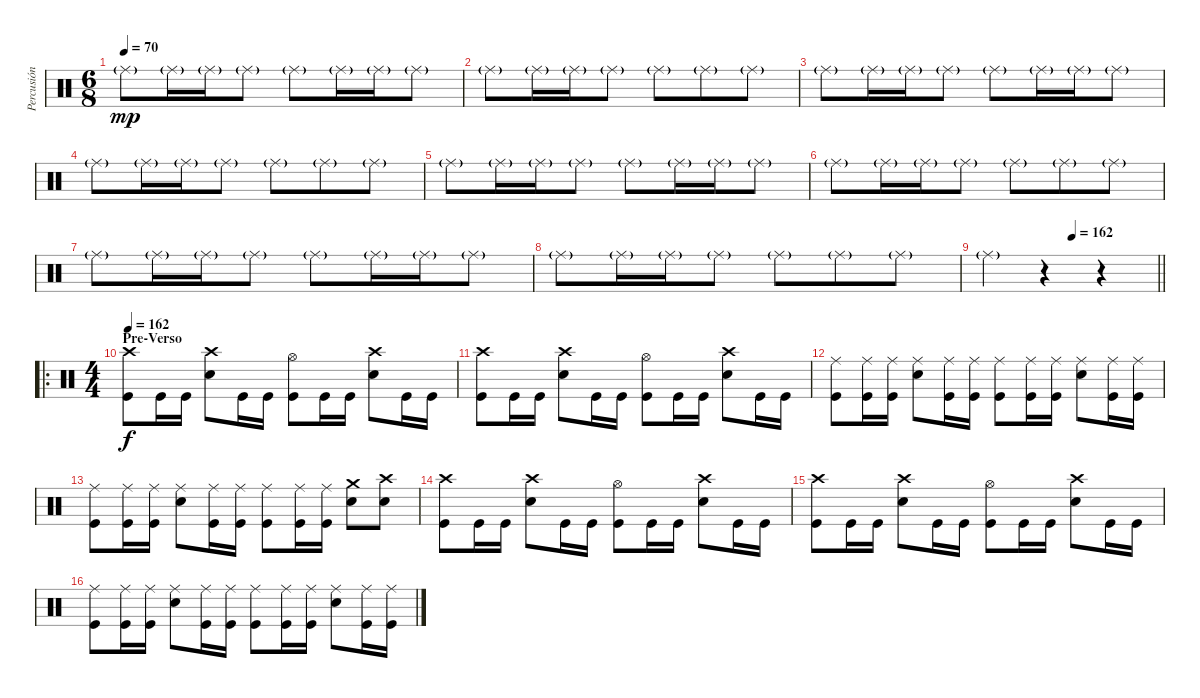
\track ("Percusión" "Percusión") {instrument percussion}
\staff {score}
\articulation defaults
\ts (6 8)
\tempo 70
\clef neutral
\ks c "Ride (middle)"{g}.8{dy mp volume 12} "Ride (middle)"{g}.16 "Ride (middle)"{g}.16 "Ride (middle)"{g}.8 "Ride (middle)"{g}.8 "Ride (middle)"{g}.16 "Ride (middle)"{g}.16 "Ride (middle)"{g}.8
|
"Ride (middle)"{g}.8 "Ride (middle)"{g}.16 "Ride (middle)"{g}.16 "Ride (middle)"{g}.8 "Ride (middle)"{g}.8 "Ride (middle)"{g}.8 "Ride (middle)"{g}.8 |
"Ride (middle)"{g}.8 "Ride (middle)"{g}.16 "Ride (middle)"{g}.16 "Ride (middle)"{g}.8 "Ride (middle)"{g}.8 "Ride (middle)"{g}.16 "Ride (middle)"{g}.16 "Ride (middle)"{g}.8 |
"Ride (middle)"{g}.8 "Ride (middle)"{g}.16 "Ride (middle)"{g}.16 "Ride (middle)"{g}.8 "Ride (middle)"{g}.8 "Ride (middle)"{g}.8 "Ride (middle)"{g}.8 |
"Ride (middle)"{g}.8{volume 14} "Ride (middle)"{g}.16 "Ride (middle)"{g}.16 "Ride (middle)"{g}.8 "Ride (middle)"{g}.8 "Ride (middle)"{g}.16 "Ride (middle)"{g}.16 "Ride (middle)"{g}.8 |
"Ride (middle)"{g}.8 "Ride (middle)"{g}.16 "Ride (middle)"{g}.16 "Ride (middle)"{g}.8 "Ride (middle)"{g}.8 "Ride (middle)"{g}.8 "Ride (middle)"{g}.8 |
"Ride (middle)"{g}.8 "Ride (middle)"{g}.16 "Ride (middle)"{g}.16 "Ride (middle)"{g}.8 "Ride (middle)"{g}.8 "Ride (middle)"{g}.16 "Ride (middle)"{g}.16 "Ride (middle)"{g}.8 |
"Ride (middle)"{g}.8 "Ride (middle)"{g}.16 "Ride (middle)"{g}.16 "Ride (middle)"{g}.8 "Ride (middle)"{g}.8 "Ride (middle)"{g}.8 "Ride (middle)"{g}.8 |
\tempo (162 0.5)
\barLineRight lightlight "Ride (middle)"{g}.4
r.4 r.4 |
\ro
\ts (4 4)
\section ("" "Pre-Verso")
\tempo 162
("Crash high (hit)" "Kick (hit)").8{dy f} "Kick (hit)".16 "Kick (hit)".16 ("Crash high (hit)" "Electric Snare (hit)").8 "Kick (hit)".16 "Kick (hit)".16 ("Hi-Hat (open)" "Kick (hit)").8 "Kick (hit)".16 "Kick (hit)".16 ("Crash high (hit)" "Electric Snare (hit)").8 "Kick (hit)".16 "Kick (hit)".16 |
("Crash high (hit)" "Kick (hit)").8 "Kick (hit)".16 "Kick (hit)".16 ("Crash high (hit)" "Electric Snare (hit)").8 "Kick (hit)".16 "Kick (hit)".16 ("Hi-Hat (open)" "Kick (hit)").8 "Kick (hit)".16 "Kick (hit)".16 ("Crash high (hit)" "Electric Snare (hit)").8 "Kick (hit)".16 "Kick (hit)".16 |
("Ride (middle)" "Kick (hit)").8 ("Ride (middle)" "Kick (hit)").16 ("Ride (middle)" "Kick (hit)").16 ("Ride (middle)" "Electric Snare (hit)").8 ("Ride (middle)" "Kick (hit)").16 ("Ride (middle)" "Kick (hit)").16 ("Ride (middle)" "Kick (hit)").8 ("Ride (middle)" "Kick (hit)").16 ("Ride (middle)" "Kick (hit)").16 ("Ride (middle)" "Electric Snare (hit)").8 ("Ride (middle)" "Kick (hit)").16 ("Ride (middle)" "Kick (hit)").16 |
("Ride (middle)" "Kick (hit)").8 ("Ride (middle)" "Kick (hit)").16 ("Ride (middle)" "Kick (hit)").16 ("Ride (middle)" "Electric Snare (hit)").8 ("Ride (middle)" "Kick (hit)").16 ("Ride (middle)" "Kick (hit)").16 ("Ride (middle)" "Kick (hit)").8 ("Ride (middle)" "Kick (hit)").16 ("Ride (middle)" "Kick (hit)").16 ("Crash medium (hit)" "Electric Snare (hit)").8 ("Crash high (hit)" "Electric Snare (hit)").8 |
("Crash high (hit)" "Kick (hit)").8 "Kick (hit)".16 "Kick (hit)".16 ("Crash high (hit)" "Electric Snare (hit)").8 "Kick (hit)".16 "Kick (hit)".16 ("Hi-Hat (open)" "Kick (hit)").8 "Kick (hit)".16 "Kick (hit)".16 ("Crash high (hit)" "Electric Snare (hit)").8 "Kick (hit)".16 "Kick (hit)".16 |
("Crash high (hit)" "Kick (hit)").8 "Kick (hit)".16 "Kick (hit)".16 ("Crash high (hit)" "Electric Snare (hit)").8 "Kick (hit)".16 "Kick (hit)".16 ("Hi-Hat (open)" "Kick (hit)").8 "Kick (hit)".16 "Kick (hit)".16 ("Crash high (hit)" "Electric Snare (hit)").8 "Kick (hit)".16 "Kick (hit)".16 |
("Ride (middle)" "Kick (hit)").8 ("Ride (middle)" "Kick (hit)").16 ("Ride (middle)" "Kick (hit)").16 ("Ride (middle)" "Electric Snare (hit)").8 ("Ride (middle)" "Kick (hit)").16 ("Ride (middle)" "Kick (hit)").16 ("Ride (middle)" "Kick (hit)").8 ("Ride (middle)" "Kick (hit)").16 ("Ride (middle)" "Kick (hit)").16 ("Ride (middle)" "Electric Snare (hit)").8 ("Ride (middle)" "Kick (hit)").16 ("Ride (middle)" "Kick (hit)").16
